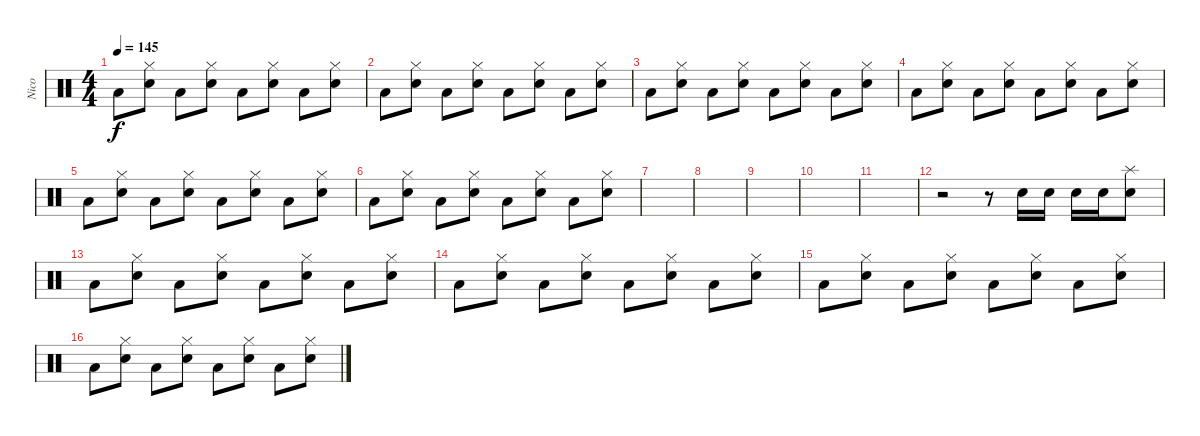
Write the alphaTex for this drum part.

\track ("Nico" "Nico") {instrument percussion}
\staff {score}
\articulation defaults
\ts (4 4)
\tempo 145
\clef neutral
\ks c "Low Floor Tom (hit)".8{dy f}
("Snare (hit) 2" "Hi-Hat (closed)").8 "Low Floor Tom (hit)".8 ("Snare (hit) 2" "Hi-Hat (closed)").8 "Low Floor Tom (hit)".8 ("Snare (hit) 2" "Hi-Hat (closed)").8 "Low Floor Tom (hit)".8 ("Snare (hit) 2" "Hi-Hat (closed)").8 |
"Low Floor Tom (hit)".8 ("Snare (hit) 2" "Hi-Hat (closed)").8 "Low Floor Tom (hit)".8 ("Snare (hit) 2" "Hi-Hat (closed)").8 "Low Floor Tom (hit)".8 ("Snare (hit) 2" "Hi-Hat (closed)").8 "Low Floor Tom (hit)".8 ("Snare (hit) 2" "Hi-Hat (closed)").8 |
"Low Floor Tom (hit)".8 ("Snare (hit) 2" "Hi-Hat (closed)").8 "Low Floor Tom (hit)".8 ("Snare (hit) 2" "Hi-Hat (closed)").8 "Low Floor Tom (hit)".8 ("Snare (hit) 2" "Hi-Hat (closed)").8 "Low Floor Tom (hit)".8 ("Snare (hit) 2" "Hi-Hat (closed)").8 |
"Low Floor Tom (hit)".8 ("Snare (hit) 2" "Hi-Hat (closed)").8 "Low Floor Tom (hit)".8 ("Snare (hit) 2" "Hi-Hat (closed)").8 "Low Floor Tom (hit)".8 ("Snare (hit) 2" "Hi-Hat (closed)").8 "Low Floor Tom (hit)".8 ("Snare (hit) 2" "Hi-Hat (closed)").8 |
"Low Floor Tom (hit)".8 ("Snare (hit) 2" "Hi-Hat (closed)").8 "Low Floor Tom (hit)".8 ("Snare (hit) 2" "Hi-Hat (closed)").8 "Low Floor Tom (hit)".8 ("Snare (hit) 2" "Hi-Hat (closed)").8 "Low Floor Tom (hit)".8 ("Snare (hit) 2" "Hi-Hat (closed)").8 |
"Low Floor Tom (hit)".8 ("Snare (hit) 2" "Hi-Hat (closed)").8 "Low Floor Tom (hit)".8 ("Snare (hit) 2" "Hi-Hat (closed)").8 "Low Floor Tom (hit)".8 ("Snare (hit) 2" "Hi-Hat (closed)").8 "Low Floor Tom (hit)".8 ("Snare (hit) 2" "Hi-Hat (closed)").8 |
|
|
|
|
|
r.2 r.8 "Snare (hit) 2".16 "Snare (hit) 2".16 "Snare (hit) 2".16 "Snare (hit) 2".16 ("Snare (hit) 2" "Splash (hit)").8 |
"Low Floor Tom (hit)".8 ("Snare (hit) 2" "Hi-Hat (closed)").8 "Low Floor Tom (hit)".8 ("Snare (hit) 2" "Hi-Hat (closed)").8 "Low Floor Tom (hit)".8 ("Snare (hit) 2" "Hi-Hat (closed)").8 "Low Floor Tom (hit)".8 ("Snare (hit) 2" "Hi-Hat (closed)").8 |
"Low Floor Tom (hit)".8 ("Snare (hit) 2" "Hi-Hat (closed)").8 "Low Floor Tom (hit)".8 ("Snare (hit) 2" "Hi-Hat (closed)").8 "Low Floor Tom (hit)".8 ("Snare (hit) 2" "Hi-Hat (closed)").8 "Low Floor Tom (hit)".8 ("Snare (hit) 2" "Hi-Hat (closed)").8 |
"Low Floor Tom (hit)".8 ("Snare (hit) 2" "Hi-Hat (closed)").8 "Low Floor Tom (hit)".8 ("Snare (hit) 2" "Hi-Hat (closed)").8 "Low Floor Tom (hit)".8 ("Snare (hit) 2" "Hi-Hat (closed)").8 "Low Floor Tom (hit)".8 ("Snare (hit) 2" "Hi-Hat (closed)").8 |
"Low Floor Tom (hit)".8 ("Snare (hit) 2" "Hi-Hat (closed)").8 "Low Floor Tom (hit)".8 ("Snare (hit) 2" "Hi-Hat (closed)").8 "Low Floor Tom (hit)".8 ("Snare (hit) 2" "Hi-Hat (closed)").8 "Low Floor Tom (hit)".8 ("Snare (hit) 2" "Hi-Hat (closed)").8
